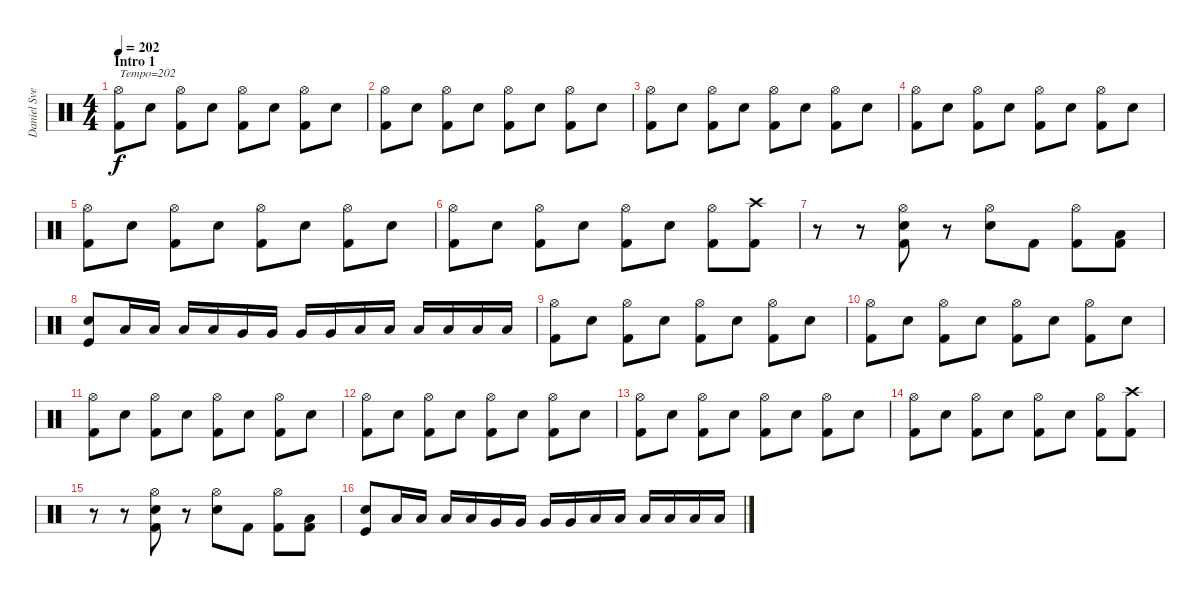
\track ("Daniel Svensson" "Daniel Sve") {instrument percussion}
\staff {score}
\articulation defaults
\ts (4 4)
\section ("" "Intro 1")
\tempo 202
\clef neutral
\ks c
("Hi-Hat (open)" "Kick (hit) 2").8{txt "Tempo=202" dy f} "Electric Snare (hit)".8 ("Hi-Hat (open)" "Kick (hit) 2").8 "Electric Snare (hit)".8 ("Hi-Hat (open)" "Kick (hit) 2").8 "Electric Snare (hit)".8 ("Hi-Hat (open)" "Kick (hit) 2").8 "Electric Snare (hit)".8 |
("Hi-Hat (open)" "Kick (hit) 2").8 "Electric Snare (hit)".8 ("Hi-Hat (open)" "Kick (hit) 2").8 "Electric Snare (hit)".8 ("Hi-Hat (open)" "Kick (hit) 2").8 "Electric Snare (hit)".8 ("Hi-Hat (open)" "Kick (hit) 2").8 "Electric Snare (hit)".8 |
("Hi-Hat (open)" "Kick (hit) 2").8 "Electric Snare (hit)".8 ("Hi-Hat (open)" "Kick (hit) 2").8 "Electric Snare (hit)".8 ("Hi-Hat (open)" "Kick (hit) 2").8 "Electric Snare (hit)".8 ("Hi-Hat (open)" "Kick (hit) 2").8 "Electric Snare (hit)".8 |
("Hi-Hat (open)" "Kick (hit) 2").8 "Electric Snare (hit)".8 ("Hi-Hat (open)" "Kick (hit) 2").8 "Electric Snare (hit)".8 ("Hi-Hat (open)" "Kick (hit) 2").8 "Electric Snare (hit)".8 ("Hi-Hat (open)" "Kick (hit) 2").8 "Electric Snare (hit)".8 |
("Hi-Hat (open)" "Kick (hit) 2").8 "Electric Snare (hit)".8 ("Hi-Hat (open)" "Kick (hit) 2").8 "Electric Snare (hit)".8 ("Hi-Hat (open)" "Kick (hit) 2").8 "Electric Snare (hit)".8 ("Hi-Hat (open)" "Kick (hit) 2").8 "Electric Snare (hit)".8 |
("Hi-Hat (open)" "Kick (hit) 2").8 "Electric Snare (hit)".8 ("Hi-Hat (open)" "Kick (hit) 2").8 "Electric Snare (hit)".8 ("Hi-Hat (open)" "Kick (hit) 2").8 "Electric Snare (hit)".8 ("Hi-Hat (open)" "Kick (hit) 2").8 ("Crash high (hit)" "Kick (hit) 2").8 |
r.8 r.8 ("Hi-Hat (open)" "Electric Snare (hit)" "Kick (hit) 2").8 r.8 ("Hi-Hat (open)" "Electric Snare (hit)").8 "Kick (hit) 2".8 ("Hi-Hat (open)" "Kick (hit) 2").8 ("Low Floor Tom (hit)" "Kick (hit) 2").8 |
("Electric Snare (hit)" "Kick (hit)").8 "Low Tom (hit)".16 "Low Tom (hit)".16 "Low Tom (hit)".16 "Low Tom (hit)".16 "Very Low Tom (hit)".16 "Very Low Tom (hit)".16 "Very Low Tom (hit)".16 "Very Low Tom (hit)".16 "Low Floor Tom (hit)".16 "Low Floor Tom (hit)".16 "Low Floor Tom (hit)".16 "Low Floor Tom (hit)".16 "Low Floor Tom (hit)".16 "Low Floor Tom (hit)".16 |
("Hi-Hat (open)" "Kick (hit) 2").8 "Electric Snare (hit)".8 ("Hi-Hat (open)" "Kick (hit) 2").8 "Electric Snare (hit)".8 ("Hi-Hat (open)" "Kick (hit) 2").8 "Electric Snare (hit)".8 ("Hi-Hat (open)" "Kick (hit) 2").8 "Electric Snare (hit)".8 |
("Hi-Hat (open)" "Kick (hit) 2").8 "Electric Snare (hit)".8 ("Hi-Hat (open)" "Kick (hit) 2").8 "Electric Snare (hit)".8 ("Hi-Hat (open)" "Kick (hit) 2").8 "Electric Snare (hit)".8 ("Hi-Hat (open)" "Kick (hit) 2").8 "Electric Snare (hit)".8 |
("Hi-Hat (open)" "Kick (hit) 2").8 "Electric Snare (hit)".8 ("Hi-Hat (open)" "Kick (hit) 2").8 "Electric Snare (hit)".8 ("Hi-Hat (open)" "Kick (hit) 2").8 "Electric Snare (hit)".8 ("Hi-Hat (open)" "Kick (hit) 2").8 "Electric Snare (hit)".8 |
("Hi-Hat (open)" "Kick (hit) 2").8 "Electric Snare (hit)".8 ("Hi-Hat (open)" "Kick (hit) 2").8 "Electric Snare (hit)".8 ("Hi-Hat (open)" "Kick (hit) 2").8 "Electric Snare (hit)".8 ("Hi-Hat (open)" "Kick (hit) 2").8 "Electric Snare (hit)".8 |
("Hi-Hat (open)" "Kick (hit) 2").8 "Electric Snare (hit)".8 ("Hi-Hat (open)" "Kick (hit) 2").8 "Electric Snare (hit)".8 ("Hi-Hat (open)" "Kick (hit) 2").8 "Electric Snare (hit)".8 ("Hi-Hat (open)" "Kick (hit) 2").8 "Electric Snare (hit)".8 |
("Hi-Hat (open)" "Kick (hit) 2").8 "Electric Snare (hit)".8 ("Hi-Hat (open)" "Kick (hit) 2").8 "Electric Snare (hit)".8 ("Hi-Hat (open)" "Kick (hit) 2").8 "Electric Snare (hit)".8 ("Hi-Hat (open)" "Kick (hit) 2").8 ("Crash high (hit)" "Kick (hit) 2").8 |
r.8 r.8 ("Hi-Hat (open)" "Electric Snare (hit)" "Kick (hit) 2").8 r.8 ("Hi-Hat (open)" "Electric Snare (hit)").8 "Kick (hit) 2".8 ("Hi-Hat (open)" "Kick (hit) 2").8 ("Low Floor Tom (hit)" "Kick (hit) 2").8 |
("Electric Snare (hit)" "Kick (hit)").8 "Low Tom (hit)".16 "Low Tom (hit)".16 "Low Tom (hit)".16 "Low Tom (hit)".16 "Very Low Tom (hit)".16 "Very Low Tom (hit)".16 "Very Low Tom (hit)".16 "Very Low Tom (hit)".16 "Low Floor Tom (hit)".16 "Low Floor Tom (hit)".16 "Low Floor Tom (hit)".16 "Low Floor Tom (hit)".16 "Low Floor Tom (hit)".16 "Low Floor Tom (hit)".16
